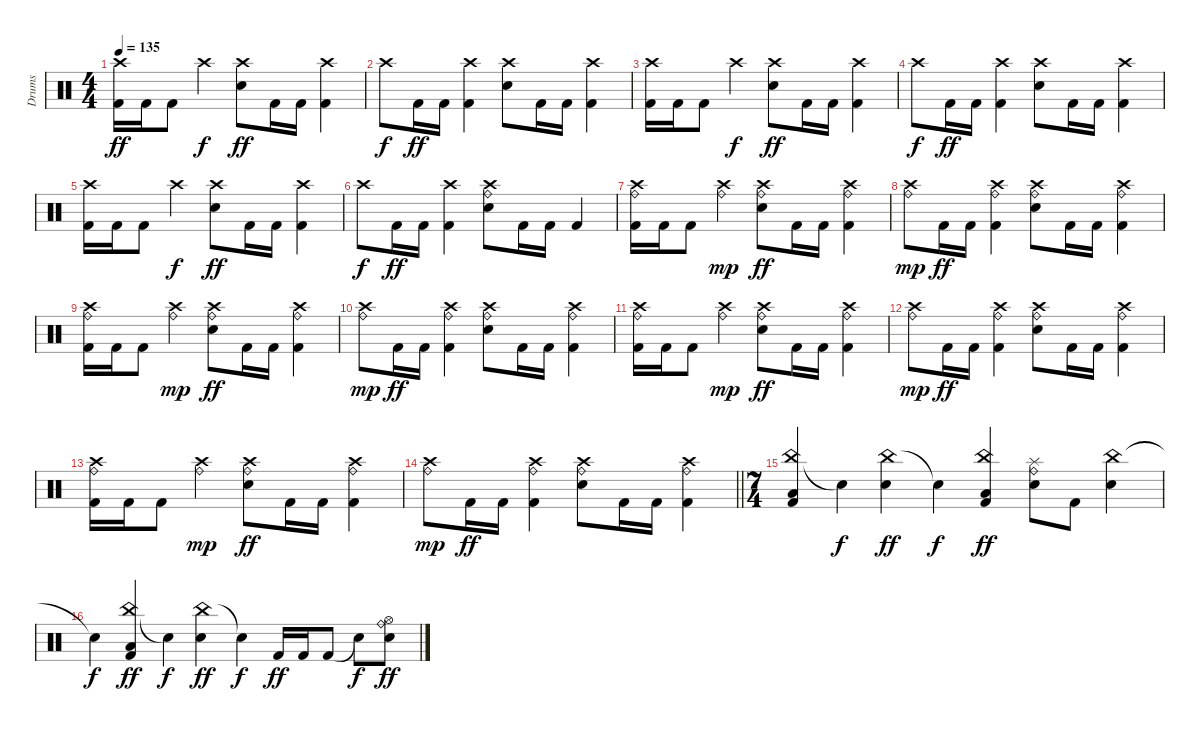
\track ("Drums" "Drums") {instrument percussion}
\staff {score}
\articulation defaults
\ts (4 4)
\tempo 135
\clef neutral
\ks c
("Crash high (hit)" "Kick (hit) 2").16{dy ff} "Kick (hit) 2".16 "Kick (hit) 2".8 "Crash high (hit)".4{dy f} ("Crash high (hit)" "Snare (hit) 2").8{dy ff} "Kick (hit) 2".16 "Kick (hit) 2".16 ("Crash high (hit)" "Kick (hit) 2").4 |
"Crash high (hit)".8{dy f} "Kick (hit) 2".16{dy ff} "Kick (hit) 2".16 ("Crash high (hit)" "Kick (hit) 2").4 ("Crash high (hit)" "Snare (hit) 2").8 "Kick (hit) 2".16 "Kick (hit) 2".16 ("Crash high (hit)" "Kick (hit) 2").4 |
("Crash high (hit)" "Kick (hit) 2").16 "Kick (hit) 2".16 "Kick (hit) 2".8 "Crash high (hit)".4{dy f} ("Crash high (hit)" "Snare (hit) 2").8{dy ff} "Kick (hit) 2".16 "Kick (hit) 2".16 ("Crash high (hit)" "Kick (hit) 2").4 |
"Crash high (hit)".8{dy f} "Kick (hit) 2".16{dy ff} "Kick (hit) 2".16 ("Crash high (hit)" "Kick (hit) 2").4 ("Crash high (hit)" "Snare (hit) 2").8 "Kick (hit) 2".16 "Kick (hit) 2".16 ("Crash high (hit)" "Kick (hit) 2").4 |
("Crash high (hit)" "Kick (hit) 2").16 "Kick (hit) 2".16 "Kick (hit) 2".8 "Crash high (hit)".4{dy f} ("Crash high (hit)" "Snare (hit) 2").8{dy ff} "Kick (hit) 2".16 "Kick (hit) 2".16 ("Crash high (hit)" "Kick (hit) 2").4 |
"Crash high (hit)".8{dy f} "Kick (hit) 2".16{dy ff} "Kick (hit) 2".16 ("Crash high (hit)" "Kick (hit) 2").4 ("Crash high (hit)" "Ride (bell)" "Snare (hit) 2").8 "Kick (hit) 2".16 "Kick (hit) 2".16 "Kick (hit) 2".4 |
("Crash high (hit)" "Ride (bell)" "Kick (hit) 2").16 "Kick (hit) 2".16 "Kick (hit) 2".8 ("Crash high (hit)" "Ride (bell)").4{dy mp} ("Crash high (hit)" "Ride (bell)" "Snare (hit) 2").8{dy ff} "Kick (hit) 2".16 "Kick (hit) 2".16 ("Crash high (hit)" "Ride (bell)" "Kick (hit) 2").4 |
("Crash high (hit)" "Ride (bell)").8{dy mp} "Kick (hit) 2".16{dy ff} "Kick (hit) 2".16 ("Crash high (hit)" "Ride (bell)" "Kick (hit) 2").4 ("Crash high (hit)" "Ride (bell)" "Snare (hit) 2").8 "Kick (hit) 2".16 "Kick (hit) 2".16 ("Crash high (hit)" "Ride (bell)" "Kick (hit) 2").4 |
("Crash high (hit)" "Ride (bell)" "Kick (hit) 2").16 "Kick (hit) 2".16 "Kick (hit) 2".8 ("Crash high (hit)" "Ride (bell)").4{dy mp} ("Crash high (hit)" "Ride (bell)" "Snare (hit) 2").8{dy ff} "Kick (hit) 2".16 "Kick (hit) 2".16 ("Crash high (hit)" "Ride (bell)" "Kick (hit) 2").4 |
("Crash high (hit)" "Ride (bell)").8{dy mp} "Kick (hit) 2".16{dy ff} "Kick (hit) 2".16 ("Crash high (hit)" "Ride (bell)" "Kick (hit) 2").4 ("Crash high (hit)" "Ride (bell)" "Snare (hit) 2").8 "Kick (hit) 2".16 "Kick (hit) 2".16 ("Crash high (hit)" "Ride (bell)" "Kick (hit) 2").4 |
("Crash high (hit)" "Ride (bell)" "Kick (hit) 2").16 "Kick (hit) 2".16 "Kick (hit) 2".8 ("Crash high (hit)" "Ride (bell)").4{dy mp} ("Crash high (hit)" "Ride (bell)" "Snare (hit) 2").8{dy ff} "Kick (hit) 2".16 "Kick (hit) 2".16 ("Crash high (hit)" "Ride (bell)" "Kick (hit) 2").4 |
("Crash high (hit)" "Ride (bell)").8{dy mp} "Kick (hit) 2".16{dy ff} "Kick (hit) 2".16 ("Crash high (hit)" "Ride (bell)" "Kick (hit) 2").4 ("Crash high (hit)" "Ride (bell)" "Snare (hit) 2").8 "Kick (hit) 2".16 "Kick (hit) 2".16 ("Crash high (hit)" "Ride (bell)" "Kick (hit) 2").4 |
("Crash high (hit)" "Ride (bell)" "Kick (hit) 2").16 "Kick (hit) 2".16 "Kick (hit) 2".8 ("Crash high (hit)" "Ride (bell)").4{dy mp} ("Crash high (hit)" "Ride (bell)" "Snare (hit) 2").8{dy ff} "Kick (hit) 2".16 "Kick (hit) 2".16 ("Crash high (hit)" "Ride (bell)" "Kick (hit) 2").4 |
\barLineRight lightlight
("Crash high (hit)" "Ride (bell)").8{dy mp} "Kick (hit) 2".16{dy ff} "Kick (hit) 2".16 ("Crash high (hit)" "Ride (bell)" "Kick (hit) 2").4 ("Crash high (hit)" "Ride (bell)" "Snare (hit) 2").8 "Kick (hit) 2".16 "Kick (hit) 2".16 ("Crash high (hit)" "Ride (bell)" "Kick (hit) 2").4 |
\ts (7 4)
\section ("" "")
("China (hit)" "Low Floor Tom (hit)" "Kick (hit) 2").4 "Snare (hit)"{t}.4{dy f} ("China (hit)" "Snare (hit) 2").4{dy ff} "Snare (hit)"{t}.4{dy f} ("China (hit)" "Low Floor Tom (hit)" "Kick (hit) 2").4{dy ff} ("Ride (bell)" "Splash (hit)" "Snare (hit) 2").8 "Kick (hit) 2".8 ("China (hit)" "Snare (hit) 2").4 |
"Snare (hit)"{t}.4{dy f} ("China (hit)" "Low Floor Tom (hit)" "Kick (hit) 2").4{dy ff} "Snare (hit)"{t}.4{dy f} ("China (hit)" "Snare (hit) 2").4{dy ff} "Snare (hit)"{t}.4{dy f} "Kick (hit) 2".16{dy ff} "Kick (hit) 2".16 "Kick (hit) 2".8 "Snare (hit)"{t}.8{dy f} ("Ride (bell)" "Hi-Hat (open)" "Snare (hit) 2").8{dy ff}
